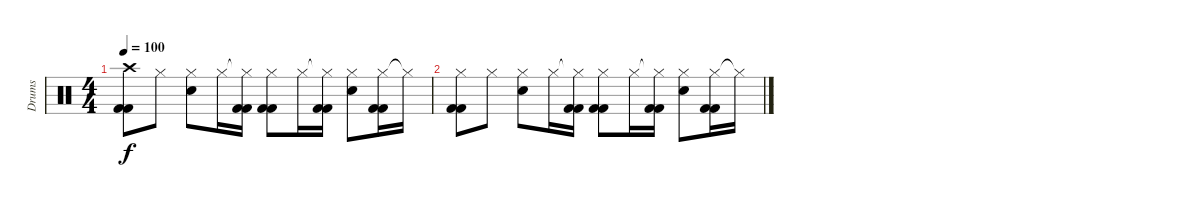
\track ("Drums" "Drums") {instrument percussion}
\staff {score}
\articulation defaults
\ts (4 4)
\tempo 100
\clef neutral
\ks c
("Crash high (hit)" "Kick (hit) 2" "Kick (hit) 2").8{dy f volume 4} "Hi-Hat (closed)".8 ("Hi-Hat (closed)" "Electric Snare (hit)").8 "Hi-Hat (closed)".16 ("Hi-Hat (closed)"{t} "Kick (hit) 2" "Kick (hit) 2").16 ("Hi-Hat (closed)" "Kick (hit) 2" "Kick (hit) 2").8 "Hi-Hat (closed)".16 ("Hi-Hat (closed)"{t} "Kick (hit) 2" "Kick (hit) 2").16 ("Hi-Hat (closed)" "Electric Snare (hit)").8 ("Hi-Hat (closed)" "Kick (hit) 2" "Kick (hit) 2").16 "Hi-Hat (closed)"{t}.16 |
("Hi-Hat (closed)" "Kick (hit) 2" "Kick (hit) 2").8{volume 1} "Hi-Hat (closed)".8 ("Hi-Hat (closed)" "Electric Snare (hit)").8 "Hi-Hat (closed)".16 ("Hi-Hat (closed)"{t} "Kick (hit) 2" "Kick (hit) 2").16 ("Hi-Hat (closed)" "Kick (hit) 2" "Kick (hit) 2").8 "Hi-Hat (closed)".16 ("Hi-Hat (closed)"{t} "Kick (hit) 2" "Kick (hit) 2").16 ("Hi-Hat (closed)" "Electric Snare (hit)").8 ("Hi-Hat (closed)" "Kick (hit) 2" "Kick (hit) 2").16 "Hi-Hat (closed)"{t}.16
